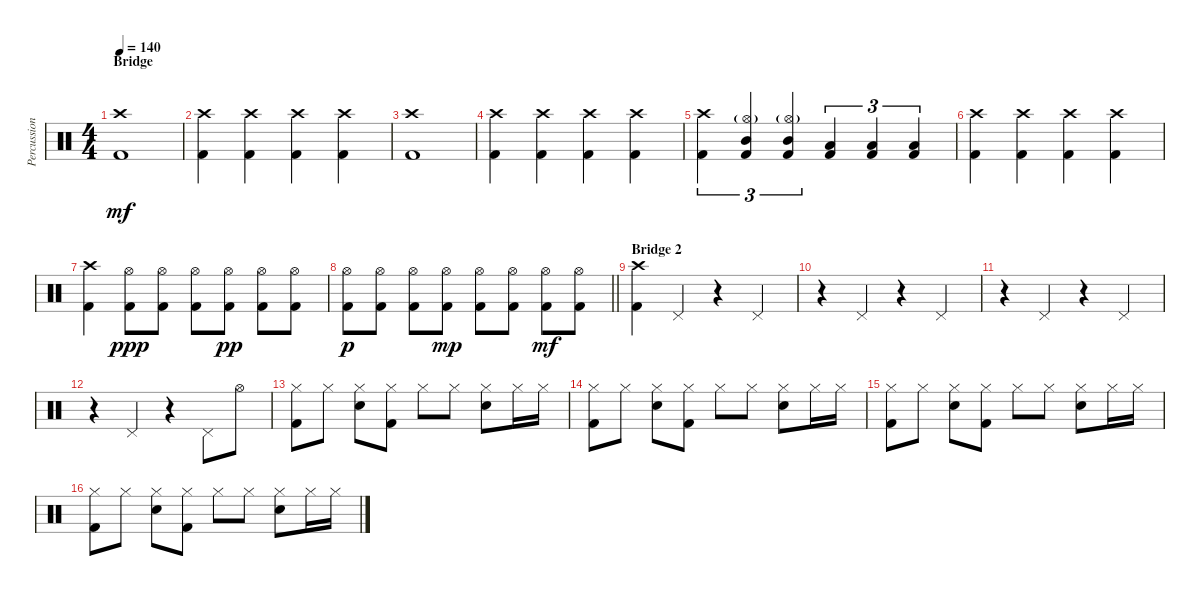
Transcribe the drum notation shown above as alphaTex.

\track ("Percussion" "Percussion") {instrument percussion}
\staff {score}
\articulation defaults
\ts (4 4)
\section ("" "Bridge")
\tempo 140
\clef neutral
\ks c
("Crash high (hit)" "Kick (hit) 2").1{dy mf} |
("Crash high (hit)" "Kick (hit) 2").4 ("Crash high (hit)" "Kick (hit) 2").4 ("Crash high (hit)" "Kick (hit) 2").4 ("Crash high (hit)" "Kick (hit) 2").4 |
("Crash high (hit)" "Kick (hit) 2").1 |
("Crash high (hit)" "Kick (hit) 2").4 ("Crash high (hit)" "Kick (hit) 2").4 ("Crash high (hit)" "Kick (hit) 2").4 ("Crash high (hit)" "Kick (hit) 2").4 |
("Crash high (hit)" "Kick (hit) 2").4{tu (3 2)} ("Hi-Hat (open)"{g} "Mid Tom (hit)" "Kick (hit) 2").4{tu (3 2)} ("Hi-Hat (open)"{g} "Mid Tom (hit)" "Kick (hit) 2").4{tu (3 2)} ("Low Tom (hit)" "Kick (hit) 2").4{tu (3 2)} ("Low Tom (hit)" "Kick (hit) 2").4{tu (3 2)} ("Low Tom (hit)" "Kick (hit) 2").4{tu (3 2)} |
("Crash high (hit)" "Kick (hit) 2").4 ("Crash high (hit)" "Kick (hit) 2").4 ("Crash high (hit)" "Kick (hit) 2").4 ("Crash high (hit)" "Kick (hit) 2").4 |
("Crash high (hit)" "Kick (hit) 2").4 ("Hi-Hat (open)" "Kick (hit) 2").8{dy ppp} ("Hi-Hat (open)" "Kick (hit) 2").8 ("Hi-Hat (open)" "Kick (hit) 2").8 ("Hi-Hat (open)" "Kick (hit) 2").8{dy pp} ("Hi-Hat (open)" "Kick (hit) 2").8 ("Hi-Hat (open)" "Kick (hit) 2").8 |
\barLineRight lightlight
("Hi-Hat (open)" "Kick (hit) 2").8{dy p} ("Hi-Hat (open)" "Kick (hit) 2").8 ("Hi-Hat (open)" "Kick (hit) 2").8 ("Hi-Hat (open)" "Kick (hit) 2").8{dy mp} ("Hi-Hat (open)" "Kick (hit) 2").8 ("Hi-Hat (open)" "Kick (hit) 2").8 ("Hi-Hat (open)" "Kick (hit) 2").8{dy mf} ("Hi-Hat (open)" "Kick (hit) 2").8 |
\section ("" "Bridge 2")
("Crash high (hit)" "Kick (hit) 2").4 "Pedal Hi-Hat (hit)".4 r.4 "Pedal Hi-Hat (hit)".4 |
r.4 "Pedal Hi-Hat (hit)".4 r.4 "Pedal Hi-Hat (hit)".4 |
r.4 "Pedal Hi-Hat (hit)".4 r.4 "Pedal Hi-Hat (hit)".4 |
r.4 "Pedal Hi-Hat (hit)".4 r.4 "Pedal Hi-Hat (hit)".8 "Hi-Hat (open)".8 |
("Hi-Hat (closed)" "Kick (hit) 2").8 "Hi-Hat (closed)".8 ("Hi-Hat (closed)" "Snare (hit) 2").8 ("Hi-Hat (closed)" "Kick (hit) 2").8 "Hi-Hat (closed)".8 "Hi-Hat (closed)".8 ("Hi-Hat (closed)" "Snare (hit) 2").8 "Hi-Hat (closed)".16 "Hi-Hat (closed)".16 |
("Hi-Hat (closed)" "Kick (hit) 2").8 "Hi-Hat (closed)".8 ("Hi-Hat (closed)" "Snare (hit) 2").8 ("Hi-Hat (closed)" "Kick (hit) 2").8 "Hi-Hat (closed)".8 "Hi-Hat (closed)".8 ("Hi-Hat (closed)" "Snare (hit) 2").8 "Hi-Hat (closed)".16 "Hi-Hat (closed)".16 |
("Hi-Hat (closed)" "Kick (hit) 2").8 "Hi-Hat (closed)".8 ("Hi-Hat (closed)" "Snare (hit) 2").8 ("Hi-Hat (closed)" "Kick (hit) 2").8 "Hi-Hat (closed)".8 "Hi-Hat (closed)".8 ("Hi-Hat (closed)" "Snare (hit) 2").8 "Hi-Hat (closed)".16 "Hi-Hat (closed)".16 |
("Hi-Hat (closed)" "Kick (hit) 2").8 "Hi-Hat (closed)".8 ("Hi-Hat (closed)" "Snare (hit) 2").8 ("Hi-Hat (closed)" "Kick (hit) 2").8 "Hi-Hat (closed)".8 "Hi-Hat (closed)".8 ("Hi-Hat (closed)" "Snare (hit) 2").8 "Hi-Hat (closed)".16 "Hi-Hat (closed)".16
